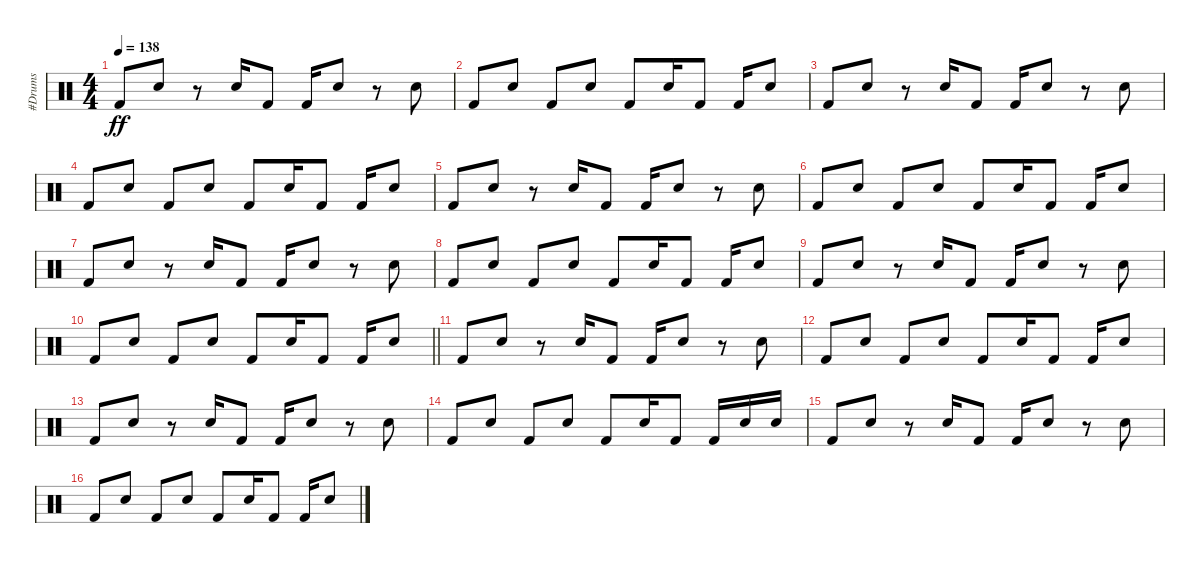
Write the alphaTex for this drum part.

\track ("#Drums" "#Drums") {instrument percussion}
\staff {score}
\articulation defaults
\ts (4 4)
\tempo 138
\clef neutral
\ks c "Kick (hit) 2".8{dy ff} "Snare (hit) 2".8
r.8 "Snare (hit) 2".16 "Kick (hit) 2".8 "Kick (hit) 2".16 "Snare (hit) 2".8 r.8 "Snare (hit) 2".8 |
"Kick (hit) 2".8 "Snare (hit) 2".8 "Kick (hit) 2".8 "Snare (hit) 2".8 "Kick (hit) 2".8 "Snare (hit) 2".16 "Kick (hit) 2".8 "Kick (hit) 2".16 "Snare (hit) 2".8 |
"Kick (hit) 2".8 "Snare (hit) 2".8 r.8 "Snare (hit) 2".16 "Kick (hit) 2".8 "Kick (hit) 2".16 "Snare (hit) 2".8 r.8 "Snare (hit) 2".8 |
"Kick (hit) 2".8 "Snare (hit) 2".8 "Kick (hit) 2".8 "Snare (hit) 2".8 "Kick (hit) 2".8 "Snare (hit) 2".16 "Kick (hit) 2".8 "Kick (hit) 2".16 "Snare (hit) 2".8 |
"Kick (hit) 2".8 "Snare (hit) 2".8 r.8 "Snare (hit) 2".16 "Kick (hit) 2".8 "Kick (hit) 2".16 "Snare (hit) 2".8 r.8 "Snare (hit) 2".8 |
"Kick (hit) 2".8 "Snare (hit) 2".8 "Kick (hit) 2".8 "Snare (hit) 2".8 "Kick (hit) 2".8 "Snare (hit) 2".16 "Kick (hit) 2".8 "Kick (hit) 2".16 "Snare (hit) 2".8 |
"Kick (hit) 2".8 "Snare (hit) 2".8 r.8 "Snare (hit) 2".16 "Kick (hit) 2".8 "Kick (hit) 2".16 "Snare (hit) 2".8 r.8 "Snare (hit) 2".8 |
"Kick (hit) 2".8 "Snare (hit) 2".8 "Kick (hit) 2".8 "Snare (hit) 2".8 "Kick (hit) 2".8 "Snare (hit) 2".16 "Kick (hit) 2".8 "Kick (hit) 2".16 "Snare (hit) 2".8 |
"Kick (hit) 2".8 "Snare (hit) 2".8 r.8 "Snare (hit) 2".16 "Kick (hit) 2".8 "Kick (hit) 2".16 "Snare (hit) 2".8 r.8 "Snare (hit) 2".8 |
\barLineRight lightlight "Kick (hit) 2".8 "Snare (hit) 2".8 "Kick (hit) 2".8 "Snare (hit) 2".8 "Kick (hit) 2".8 "Snare (hit) 2".16 "Kick (hit) 2".8 "Kick (hit) 2".16 "Snare (hit) 2".8
|
"Kick (hit) 2".8 "Snare (hit) 2".8 r.8 "Snare (hit) 2".16 "Kick (hit) 2".8 "Kick (hit) 2".16 "Snare (hit) 2".8 r.8 "Snare (hit) 2".8 |
"Kick (hit) 2".8 "Snare (hit) 2".8 "Kick (hit) 2".8 "Snare (hit) 2".8 "Kick (hit) 2".8 "Snare (hit) 2".16 "Kick (hit) 2".8 "Kick (hit) 2".16 "Snare (hit) 2".8 |
"Kick (hit) 2".8 "Snare (hit) 2".8 r.8 "Snare (hit) 2".16 "Kick (hit) 2".8 "Kick (hit) 2".16 "Snare (hit) 2".8 r.8 "Snare (hit) 2".8 |
"Kick (hit) 2".8 "Snare (hit) 2".8 "Kick (hit) 2".8 "Snare (hit) 2".8 "Kick (hit) 2".8 "Snare (hit) 2".16 "Kick (hit) 2".8 "Kick (hit) 2".16 "Snare (hit) 2".16 "Snare (hit) 2".16 |
"Kick (hit) 2".8 "Snare (hit) 2".8 r.8 "Snare (hit) 2".16 "Kick (hit) 2".8 "Kick (hit) 2".16 "Snare (hit) 2".8 r.8 "Snare (hit) 2".8 |
"Kick (hit) 2".8 "Snare (hit) 2".8 "Kick (hit) 2".8 "Snare (hit) 2".8 "Kick (hit) 2".8 "Snare (hit) 2".16 "Kick (hit) 2".8 "Kick (hit) 2".16 "Snare (hit) 2".8
